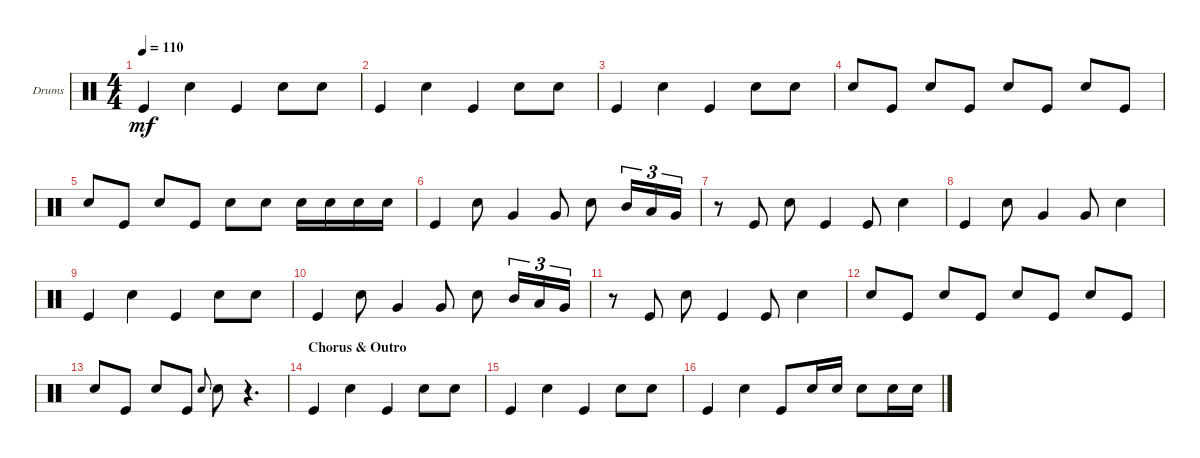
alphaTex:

\defaultSystemsLayout 4
\bracketExtendMode groupsimilarinstruments
\firstSystemTrackNameOrientation horizontal
\otherSystemsTrackNameOrientation horizontal
\track ("Drumkit" "Drums") {instrument percussion}
\staff {score}
\articulation defaults
\ts (4 4)
\tempo 110
\clef neutral
\ks c "Kick (hit)".4{dy mf} "Snare (hit) 2".4 "Kick (hit)".4 "Snare (hit) 2".8 "Snare (hit) 2".8
|
"Kick (hit)".4 "Snare (hit) 2".4 "Kick (hit)".4 "Snare (hit) 2".8 "Snare (hit) 2".8 |
"Kick (hit)".4 "Snare (hit) 2".4 "Kick (hit)".4 "Snare (hit) 2".8 "Snare (hit) 2".8 |
"Snare (hit) 2".8 "Kick (hit)".8 "Snare (hit) 2".8 "Kick (hit)".8 "Snare (hit) 2".8 "Kick (hit)".8 "Snare (hit) 2".8 "Kick (hit)".8 |
"Snare (hit) 2".8 "Kick (hit)".8 "Snare (hit) 2".8 "Kick (hit)".8 "Snare (hit) 2".8 "Snare (hit) 2".8 "Snare (hit) 2".16 "Snare (hit) 2".16 "Snare (hit) 2".16 "Snare (hit) 2".16 |
"Kick (hit)".4 "Snare (hit) 2".8 "Very Low Tom (hit)".4 "Very Low Tom (hit)".8 "Snare (hit) 2".8 "Mid Tom (hit)".16{tu (3 2)} "Low Tom (hit)".16{tu (3 2)} "Very Low Tom (hit)".16{tu (3 2)} |
r.8 "Kick (hit)".8 "Snare (hit) 2".8 "Kick (hit)".4 "Kick (hit)".8 "Snare (hit) 2".4 |
"Kick (hit)".4 "Snare (hit) 2".8 "Very Low Tom (hit)".4 "Very Low Tom (hit)".8 "Snare (hit) 2".4 |
"Kick (hit)".4 "Snare (hit) 2".4 "Kick (hit)".4 "Snare (hit) 2".8 "Snare (hit) 2".8 |
"Kick (hit)".4 "Snare (hit) 2".8 "Very Low Tom (hit)".4 "Very Low Tom (hit)".8 "Snare (hit) 2".8 "Mid Tom (hit)".16{tu (3 2)} "Low Tom (hit)".16{tu (3 2)} "Very Low Tom (hit)".16{tu (3 2)} |
r.8 "Kick (hit)".8 "Snare (hit) 2".8 "Kick (hit)".4 "Kick (hit)".8 "Snare (hit) 2".4 |
"Snare (hit) 2".8 "Kick (hit)".8 "Snare (hit) 2".8 "Kick (hit)".8 "Snare (hit) 2".8 "Kick (hit)".8 "Snare (hit) 2".8 "Kick (hit)".8 |
"Snare (hit) 2".8 "Kick (hit)".8 "Snare (hit) 2".8 "Kick (hit)".8 "Snare (hit) 2".8{gr onbeat} "Snare (hit) 2".8 r.4{d} |
\section ("" "Chorus & Outro")
"Kick (hit)".4 "Snare (hit) 2".4 "Kick (hit)".4 "Snare (hit) 2".8 "Snare (hit) 2".8 |
"Kick (hit)".4 "Snare (hit) 2".4 "Kick (hit)".4 "Snare (hit) 2".8 "Snare (hit) 2".8 |
"Kick (hit)".4 "Snare (hit) 2".4 "Kick (hit)".8 "Snare (hit) 2".16 "Snare (hit) 2".16 "Snare (hit) 2".8 "Snare (hit) 2".16 "Snare (hit) 2".16
